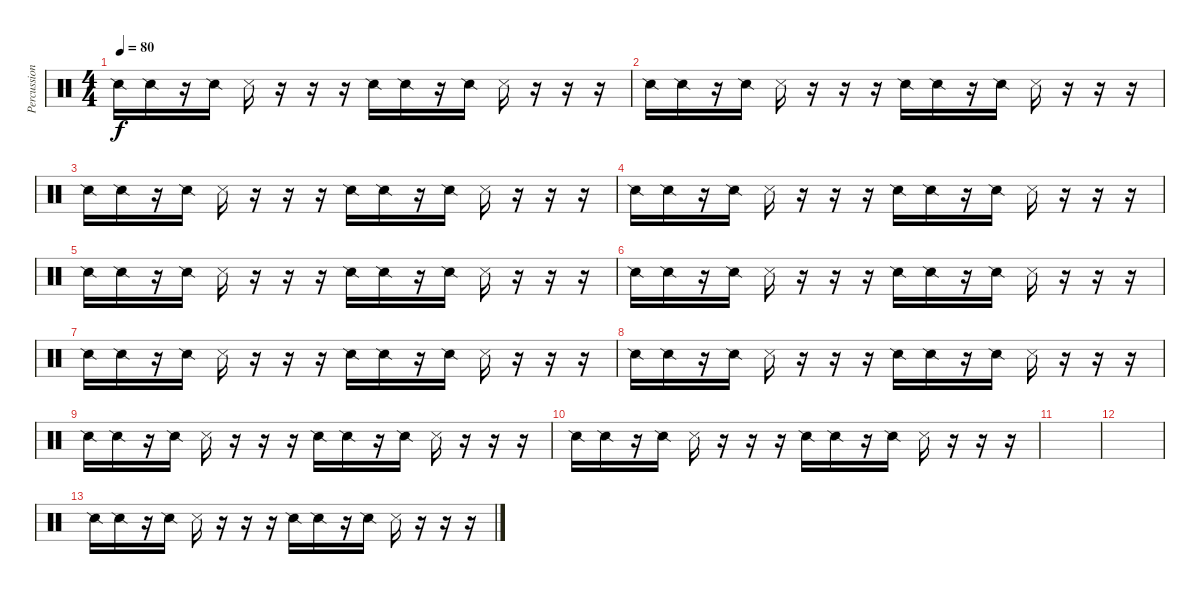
\track ("Percussion" "Percussion") {instrument percussion}
\staff {score}
\articulation defaults
\ts (4 4)
\tempo 80
\clef neutral
\ks c "Snare (side stick) 2".16{dy f} "Snare (side stick) 2".16
r.16 "Snare (side stick) 2".16 "Metronome (hit)".16 r.16 r.16 r.16 "Snare (side stick) 2".16 "Snare (side stick) 2".16 r.16 "Snare (side stick) 2".16 "Metronome (hit)".16 r.16 r.16 r.16 |
"Snare (side stick) 2".16 "Snare (side stick) 2".16 r.16 "Snare (side stick) 2".16 "Metronome (hit)".16 r.16 r.16 r.16 "Snare (side stick) 2".16 "Snare (side stick) 2".16 r.16 "Snare (side stick) 2".16 "Metronome (hit)".16 r.16 r.16 r.16 |
"Snare (side stick) 2".16 "Snare (side stick) 2".16 r.16 "Snare (side stick) 2".16 "Metronome (hit)".16 r.16 r.16 r.16 "Snare (side stick) 2".16 "Snare (side stick) 2".16 r.16 "Snare (side stick) 2".16 "Metronome (hit)".16 r.16 r.16 r.16 |
"Snare (side stick) 2".16 "Snare (side stick) 2".16 r.16 "Snare (side stick) 2".16 "Metronome (hit)".16 r.16 r.16 r.16 "Snare (side stick) 2".16 "Snare (side stick) 2".16 r.16 "Snare (side stick) 2".16 "Metronome (hit)".16 r.16 r.16 r.16 |
"Snare (side stick) 2".16 "Snare (side stick) 2".16 r.16 "Snare (side stick) 2".16 "Metronome (hit)".16 r.16 r.16 r.16 "Snare (side stick) 2".16 "Snare (side stick) 2".16 r.16 "Snare (side stick) 2".16 "Metronome (hit)".16 r.16 r.16 r.16 |
"Snare (side stick) 2".16 "Snare (side stick) 2".16 r.16 "Snare (side stick) 2".16 "Metronome (hit)".16 r.16 r.16 r.16 "Snare (side stick) 2".16 "Snare (side stick) 2".16 r.16 "Snare (side stick) 2".16 "Metronome (hit)".16 r.16 r.16 r.16 |
"Snare (side stick) 2".16 "Snare (side stick) 2".16 r.16 "Snare (side stick) 2".16 "Metronome (hit)".16 r.16 r.16 r.16 "Snare (side stick) 2".16 "Snare (side stick) 2".16 r.16 "Snare (side stick) 2".16 "Metronome (hit)".16 r.16 r.16 r.16 |
"Snare (side stick) 2".16 "Snare (side stick) 2".16 r.16 "Snare (side stick) 2".16 "Metronome (hit)".16 r.16 r.16 r.16 "Snare (side stick) 2".16 "Snare (side stick) 2".16 r.16 "Snare (side stick) 2".16 "Metronome (hit)".16 r.16 r.16 r.16 |
"Snare (side stick) 2".16 "Snare (side stick) 2".16 r.16 "Snare (side stick) 2".16 "Metronome (hit)".16 r.16 r.16 r.16 "Snare (side stick) 2".16 "Snare (side stick) 2".16 r.16 "Snare (side stick) 2".16 "Metronome (hit)".16 r.16 r.16 r.16 |
"Snare (side stick) 2".16 "Snare (side stick) 2".16 r.16 "Snare (side stick) 2".16 "Metronome (hit)".16 r.16 r.16 r.16 "Snare (side stick) 2".16 "Snare (side stick) 2".16 r.16 "Snare (side stick) 2".16 "Metronome (hit)".16 r.16 r.16 r.16 |
|
|
"Snare (side stick) 2".16 "Snare (side stick) 2".16 r.16 "Snare (side stick) 2".16 "Metronome (hit)".16 r.16 r.16 r.16 "Snare (side stick) 2".16 "Snare (side stick) 2".16 r.16 "Snare (side stick) 2".16 "Metronome (hit)".16 r.16 r.16 r.16
